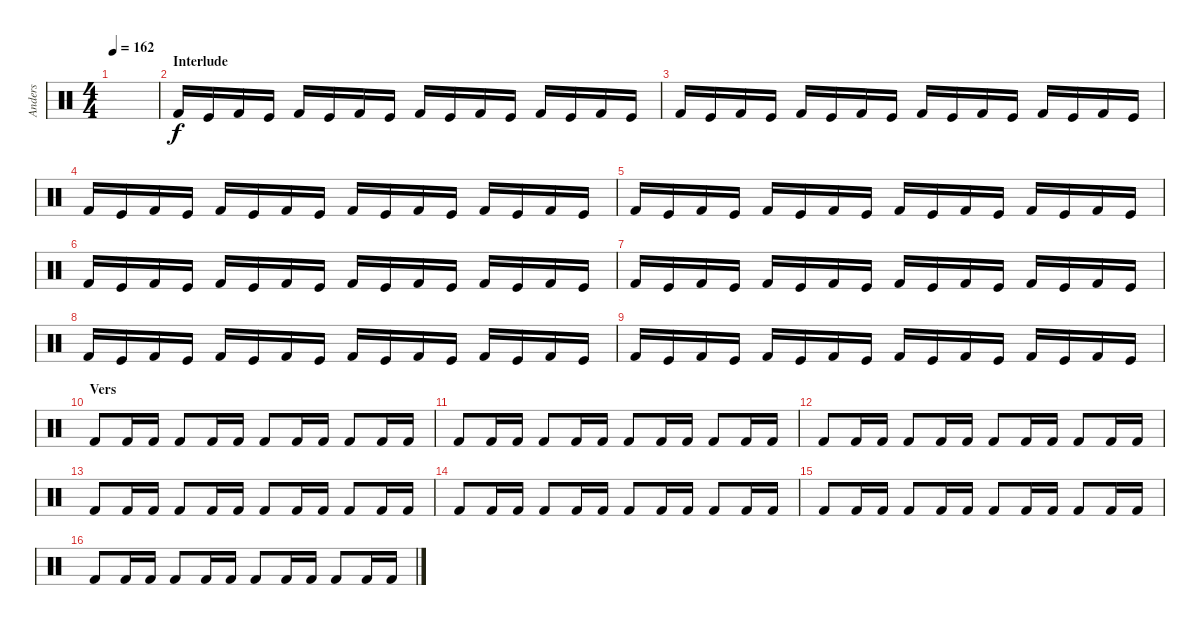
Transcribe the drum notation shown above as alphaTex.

\track ("Anders" "Anders") {instrument percussion}
\staff {score}
\articulation defaults
\ts (4 4)
\tempo 162
\clef neutral
\ks c
|
\section ("" "Interlude")
"Kick (hit) 2".16 "Kick (hit)".16 "Kick (hit) 2".16 "Kick (hit)".16 "Kick (hit) 2".16 "Kick (hit)".16 "Kick (hit) 2".16 "Kick (hit)".16 "Kick (hit) 2".16 "Kick (hit)".16 "Kick (hit) 2".16 "Kick (hit)".16 "Kick (hit) 2".16 "Kick (hit)".16 "Kick (hit) 2".16 "Kick (hit)".16 |
"Kick (hit) 2".16 "Kick (hit)".16 "Kick (hit) 2".16 "Kick (hit)".16 "Kick (hit) 2".16 "Kick (hit)".16 "Kick (hit) 2".16 "Kick (hit)".16 "Kick (hit) 2".16 "Kick (hit)".16 "Kick (hit) 2".16 "Kick (hit)".16 "Kick (hit) 2".16 "Kick (hit)".16 "Kick (hit) 2".16 "Kick (hit)".16 |
"Kick (hit) 2".16 "Kick (hit)".16 "Kick (hit) 2".16 "Kick (hit)".16 "Kick (hit) 2".16 "Kick (hit)".16 "Kick (hit) 2".16 "Kick (hit)".16 "Kick (hit) 2".16 "Kick (hit)".16 "Kick (hit) 2".16 "Kick (hit)".16 "Kick (hit) 2".16 "Kick (hit)".16 "Kick (hit) 2".16 "Kick (hit)".16 |
"Kick (hit) 2".16 "Kick (hit)".16 "Kick (hit) 2".16 "Kick (hit)".16 "Kick (hit) 2".16 "Kick (hit)".16 "Kick (hit) 2".16 "Kick (hit)".16 "Kick (hit) 2".16 "Kick (hit)".16 "Kick (hit) 2".16 "Kick (hit)".16 "Kick (hit) 2".16 "Kick (hit)".16 "Kick (hit) 2".16 "Kick (hit)".16 |
"Kick (hit) 2".16 "Kick (hit)".16 "Kick (hit) 2".16 "Kick (hit)".16 "Kick (hit) 2".16 "Kick (hit)".16 "Kick (hit) 2".16 "Kick (hit)".16 "Kick (hit) 2".16 "Kick (hit)".16 "Kick (hit) 2".16 "Kick (hit)".16 "Kick (hit) 2".16 "Kick (hit)".16 "Kick (hit) 2".16 "Kick (hit)".16 |
"Kick (hit) 2".16 "Kick (hit)".16 "Kick (hit) 2".16 "Kick (hit)".16 "Kick (hit) 2".16 "Kick (hit)".16 "Kick (hit) 2".16 "Kick (hit)".16 "Kick (hit) 2".16 "Kick (hit)".16 "Kick (hit) 2".16 "Kick (hit)".16 "Kick (hit) 2".16 "Kick (hit)".16 "Kick (hit) 2".16 "Kick (hit)".16 |
"Kick (hit) 2".16 "Kick (hit)".16 "Kick (hit) 2".16 "Kick (hit)".16 "Kick (hit) 2".16 "Kick (hit)".16 "Kick (hit) 2".16 "Kick (hit)".16 "Kick (hit) 2".16 "Kick (hit)".16 "Kick (hit) 2".16 "Kick (hit)".16 "Kick (hit) 2".16 "Kick (hit)".16 "Kick (hit) 2".16 "Kick (hit)".16 |
"Kick (hit) 2".16 "Kick (hit)".16 "Kick (hit) 2".16 "Kick (hit)".16 "Kick (hit) 2".16 "Kick (hit)".16 "Kick (hit) 2".16 "Kick (hit)".16 "Kick (hit) 2".16 "Kick (hit)".16 "Kick (hit) 2".16 "Kick (hit)".16 "Kick (hit) 2".16 "Kick (hit)".16 "Kick (hit) 2".16 "Kick (hit)".16 |
\section ("" "Vers")
"Kick (hit) 2".8 "Kick (hit) 2".16 "Kick (hit) 2".16 "Kick (hit) 2".8 "Kick (hit) 2".16 "Kick (hit) 2".16 "Kick (hit) 2".8 "Kick (hit) 2".16 "Kick (hit) 2".16 "Kick (hit) 2".8 "Kick (hit) 2".16 "Kick (hit) 2".16 |
"Kick (hit) 2".8 "Kick (hit) 2".16 "Kick (hit) 2".16 "Kick (hit) 2".8 "Kick (hit) 2".16 "Kick (hit) 2".16 "Kick (hit) 2".8 "Kick (hit) 2".16 "Kick (hit) 2".16 "Kick (hit) 2".8 "Kick (hit) 2".16 "Kick (hit) 2".16 |
"Kick (hit) 2".8 "Kick (hit) 2".16 "Kick (hit) 2".16 "Kick (hit) 2".8 "Kick (hit) 2".16 "Kick (hit) 2".16 "Kick (hit) 2".8 "Kick (hit) 2".16 "Kick (hit) 2".16 "Kick (hit) 2".8 "Kick (hit) 2".16 "Kick (hit) 2".16 |
"Kick (hit) 2".8 "Kick (hit) 2".16 "Kick (hit) 2".16 "Kick (hit) 2".8 "Kick (hit) 2".16 "Kick (hit) 2".16 "Kick (hit) 2".8 "Kick (hit) 2".16 "Kick (hit) 2".16 "Kick (hit) 2".8 "Kick (hit) 2".16 "Kick (hit) 2".16 |
"Kick (hit) 2".8 "Kick (hit) 2".16 "Kick (hit) 2".16 "Kick (hit) 2".8 "Kick (hit) 2".16 "Kick (hit) 2".16 "Kick (hit) 2".8 "Kick (hit) 2".16 "Kick (hit) 2".16 "Kick (hit) 2".8 "Kick (hit) 2".16 "Kick (hit) 2".16 |
"Kick (hit) 2".8 "Kick (hit) 2".16 "Kick (hit) 2".16 "Kick (hit) 2".8 "Kick (hit) 2".16 "Kick (hit) 2".16 "Kick (hit) 2".8 "Kick (hit) 2".16 "Kick (hit) 2".16 "Kick (hit) 2".8 "Kick (hit) 2".16 "Kick (hit) 2".16 |
"Kick (hit) 2".8 "Kick (hit) 2".16 "Kick (hit) 2".16 "Kick (hit) 2".8 "Kick (hit) 2".16 "Kick (hit) 2".16 "Kick (hit) 2".8 "Kick (hit) 2".16 "Kick (hit) 2".16 "Kick (hit) 2".8 "Kick (hit) 2".16 "Kick (hit) 2".16
